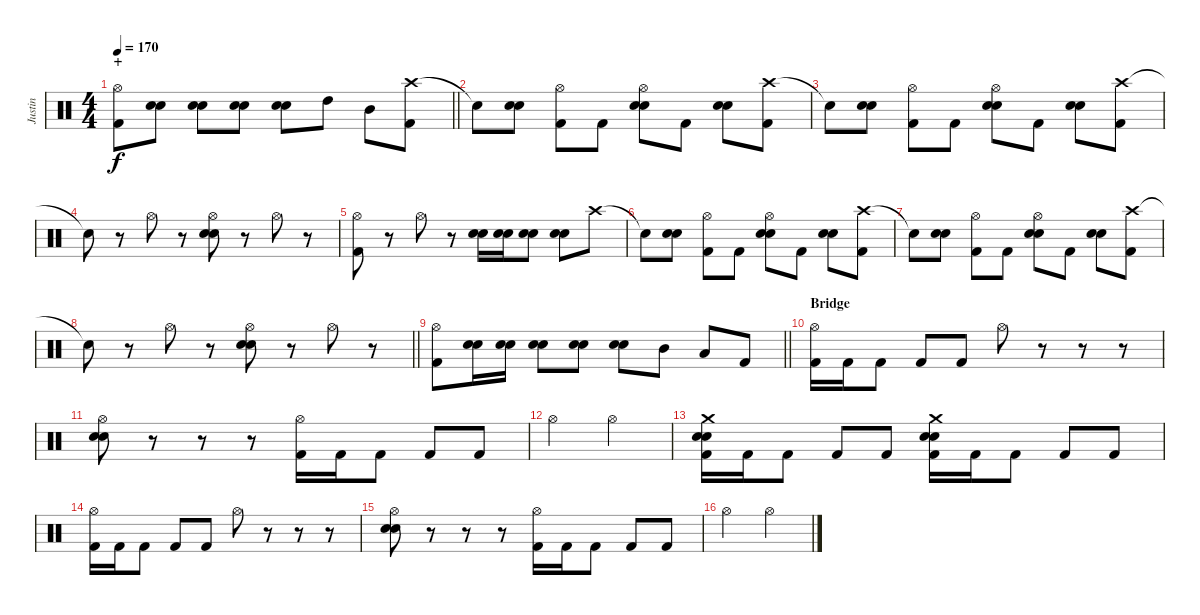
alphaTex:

\track ("Justin" "Justin") {instrument percussion}
\staff {score}
\articulation defaults
\ts (4 4)
\section ("" "+")
\tempo 170
\clef neutral
\barLineRight lightlight
\ks c
("Hi-Hat (open)" "Kick (hit) 2").8{dy f} ("Electric Snare (hit)" "Snare (hit) 2").8 ("Electric Snare (hit)" "Snare (hit) 2").8 ("Electric Snare (hit)" "Snare (hit) 2").8 ("Electric Snare (hit)" "Snare (hit) 2").8 "High Tom (hit)".8 "Mid Tom (hit)".8 ("Crash high (hit)" "Kick (hit) 2").8 |
"Snare (hit)"{t}.8 ("Electric Snare (hit)" "Snare (hit) 2").8 ("Hi-Hat (open)" "Kick (hit) 2").8 "Kick (hit) 2".8 ("Hi-Hat (open)" "Electric Snare (hit)" "Snare (hit) 2").8 "Kick (hit) 2".8 ("Electric Snare (hit)" "Snare (hit) 2").8 ("Crash high (hit)" "Kick (hit) 2").8 |
"Snare (hit)"{t}.8 ("Electric Snare (hit)" "Snare (hit) 2").8 ("Hi-Hat (open)" "Kick (hit) 2").8 "Kick (hit) 2".8 ("Hi-Hat (open)" "Electric Snare (hit)" "Snare (hit) 2").8 "Kick (hit) 2".8 ("Electric Snare (hit)" "Snare (hit) 2").8 ("Crash high (hit)" "Kick (hit) 2").8 |
"Snare (hit)"{t}.8 r.8 "Hi-Hat (open)".8 r.8 ("Hi-Hat (open)" "Electric Snare (hit)" "Snare (hit) 2").8 r.8 "Hi-Hat (open)".8 r.8 |
("Hi-Hat (open)" "Kick (hit) 2").8 r.8 "Hi-Hat (open)".8 r.8 ("Electric Snare (hit)" "Snare (hit) 2").16 ("Electric Snare (hit)" "Snare (hit) 2").16 ("Electric Snare (hit)" "Snare (hit) 2").8 ("Electric Snare (hit)" "Snare (hit) 2").8 "Crash high (hit)".8 |
"Snare (hit)"{t}.8 ("Electric Snare (hit)" "Snare (hit) 2").8 ("Hi-Hat (open)" "Kick (hit) 2").8 "Kick (hit) 2".8 ("Hi-Hat (open)" "Electric Snare (hit)" "Snare (hit) 2").8 "Kick (hit) 2".8 ("Electric Snare (hit)" "Snare (hit) 2").8 ("Crash high (hit)" "Kick (hit) 2").8 |
"Snare (hit)"{t}.8 ("Electric Snare (hit)" "Snare (hit) 2").8 ("Hi-Hat (open)" "Kick (hit) 2").8 "Kick (hit) 2".8 ("Hi-Hat (open)" "Electric Snare (hit)" "Snare (hit) 2").8 "Kick (hit) 2".8 ("Electric Snare (hit)" "Snare (hit) 2").8 ("Crash high (hit)" "Kick (hit) 2").8 |
\barLineRight lightlight "Snare (hit)"{t}.8
r.8 "Hi-Hat (open)".8 r.8 ("Hi-Hat (open)" "Electric Snare (hit)" "Snare (hit) 2").8 r.8 "Hi-Hat (open)".8 r.8 |
\barLineRight lightlight
("Hi-Hat (open)" "Kick (hit) 2").8 ("Electric Snare (hit)" "Snare (hit) 2").16 ("Electric Snare (hit)" "Snare (hit) 2").16 ("Electric Snare (hit)" "Snare (hit) 2").8 ("Electric Snare (hit)" "Snare (hit) 2").8 ("Electric Snare (hit)" "Snare (hit) 2").8 "Mid Tom (hit)".8 "Low Tom (hit)".8 "Kick (hit) 2".8 |
\section ("" "Bridge")
("Hi-Hat (open)" "Kick (hit) 2").16 "Kick (hit) 2".16 "Kick (hit) 2".8 "Kick (hit) 2".8 "Kick (hit) 2".8 "Hi-Hat (open)".8 r.8 r.8 r.8 |
("Hi-Hat (open)" "Electric Snare (hit)" "Snare (hit) 2").8 r.8 r.8 r.8 ("Hi-Hat (open)" "Kick (hit) 2").16 "Kick (hit) 2".16 "Kick (hit) 2".8 "Kick (hit) 2".8 "Kick (hit) 2".8 |
"Hi-Hat (open)".2 "Hi-Hat (open)".2 |
("Crash medium (hit)" "Electric Snare (hit)" "Snare (hit) 2" "Kick (hit) 2").16 "Kick (hit) 2".16 "Kick (hit) 2".8 "Kick (hit) 2".8 "Kick (hit) 2".8 ("Crash medium (hit)" "Electric Snare (hit)" "Snare (hit) 2" "Kick (hit) 2").16 "Kick (hit) 2".16 "Kick (hit) 2".8 "Kick (hit) 2".8 "Kick (hit) 2".8 |
("Hi-Hat (open)" "Kick (hit) 2").16 "Kick (hit) 2".16 "Kick (hit) 2".8 "Kick (hit) 2".8 "Kick (hit) 2".8 "Hi-Hat (open)".8 r.8 r.8 r.8 |
("Hi-Hat (open)" "Electric Snare (hit)" "Snare (hit) 2").8 r.8 r.8 r.8 ("Hi-Hat (open)" "Kick (hit) 2").16 "Kick (hit) 2".16 "Kick (hit) 2".8 "Kick (hit) 2".8 "Kick (hit) 2".8 |
"Hi-Hat (open)".2 "Hi-Hat (open)".2
